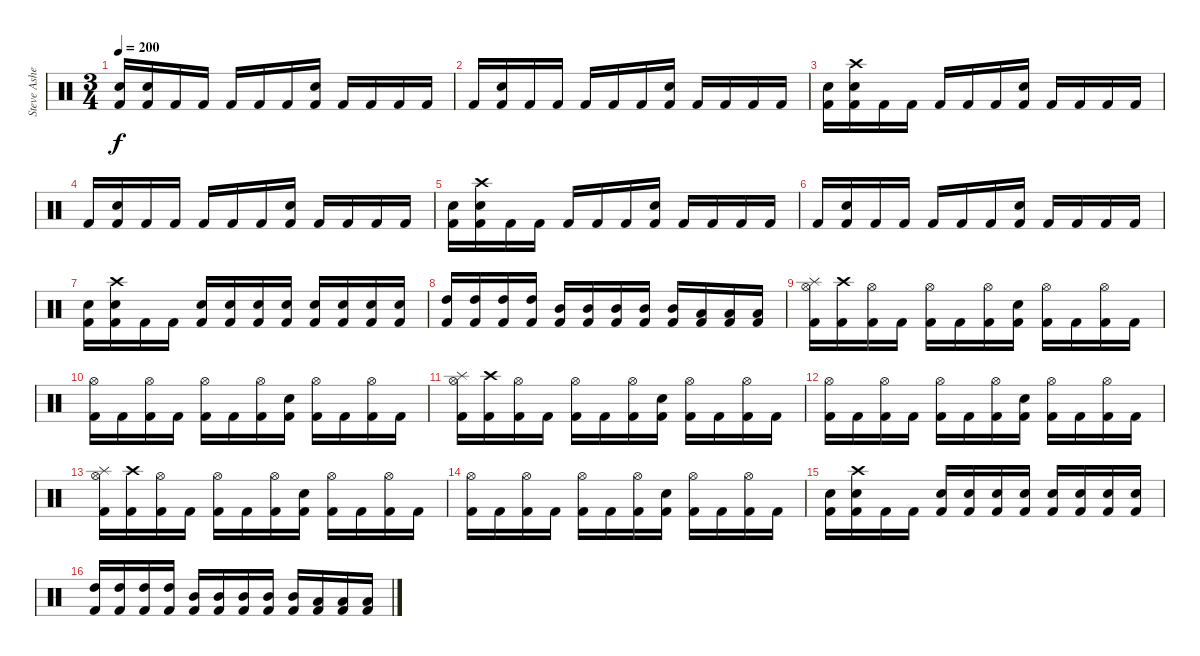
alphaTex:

\track ("Steve Asheim" "Steve Ashe") {instrument percussion}
\staff {score}
\articulation defaults
\ts (3 4)
\tempo 200
\clef neutral
\ks c
("Electric Snare (hit)" "Kick (hit) 2").16{dy f} ("Electric Snare (hit)" "Kick (hit) 2").16 "Kick (hit) 2".16 "Kick (hit) 2".16 "Kick (hit) 2".16 "Kick (hit) 2".16 "Kick (hit) 2".16 ("Electric Snare (hit)" "Kick (hit) 2").16 "Kick (hit) 2".16 "Kick (hit) 2".16 "Kick (hit) 2".16 "Kick (hit) 2".16 |
"Kick (hit) 2".16 ("Electric Snare (hit)" "Kick (hit) 2").16 "Kick (hit) 2".16 "Kick (hit) 2".16 "Kick (hit) 2".16 "Kick (hit) 2".16 "Kick (hit) 2".16 ("Electric Snare (hit)" "Kick (hit) 2").16 "Kick (hit) 2".16 "Kick (hit) 2".16 "Kick (hit) 2".16 "Kick (hit) 2".16 |
("Electric Snare (hit)" "Kick (hit) 2").16 ("Crash high (hit)" "Electric Snare (hit)" "Kick (hit) 2").16 "Kick (hit) 2".16 "Kick (hit) 2".16 "Kick (hit) 2".16 "Kick (hit) 2".16 "Kick (hit) 2".16 ("Electric Snare (hit)" "Kick (hit) 2").16 "Kick (hit) 2".16 "Kick (hit) 2".16 "Kick (hit) 2".16 "Kick (hit) 2".16 |
"Kick (hit) 2".16 ("Electric Snare (hit)" "Kick (hit) 2").16 "Kick (hit) 2".16 "Kick (hit) 2".16 "Kick (hit) 2".16 "Kick (hit) 2".16 "Kick (hit) 2".16 ("Electric Snare (hit)" "Kick (hit) 2").16 "Kick (hit) 2".16 "Kick (hit) 2".16 "Kick (hit) 2".16 "Kick (hit) 2".16 |
("Electric Snare (hit)" "Kick (hit) 2").16 ("Crash high (hit)" "Electric Snare (hit)" "Kick (hit) 2").16 "Kick (hit) 2".16 "Kick (hit) 2".16 "Kick (hit) 2".16 "Kick (hit) 2".16 "Kick (hit) 2".16 ("Electric Snare (hit)" "Kick (hit) 2").16 "Kick (hit) 2".16 "Kick (hit) 2".16 "Kick (hit) 2".16 "Kick (hit) 2".16 |
"Kick (hit) 2".16 ("Electric Snare (hit)" "Kick (hit) 2").16 "Kick (hit) 2".16 "Kick (hit) 2".16 "Kick (hit) 2".16 "Kick (hit) 2".16 "Kick (hit) 2".16 ("Electric Snare (hit)" "Kick (hit) 2").16 "Kick (hit) 2".16 "Kick (hit) 2".16 "Kick (hit) 2".16 "Kick (hit) 2".16 |
("Electric Snare (hit)" "Kick (hit) 2").16 ("Crash high (hit)" "Electric Snare (hit)" "Kick (hit) 2").16 "Kick (hit) 2".16 "Kick (hit) 2".16 ("Electric Snare (hit)" "Kick (hit) 2").16 ("Snare (hit) 2" "Kick (hit) 2").16 ("Snare (hit) 2" "Kick (hit) 2").16 ("Snare (hit) 2" "Kick (hit) 2").16 ("Snare (hit) 2" "Kick (hit) 2").16 ("Snare (hit) 2" "Kick (hit) 2").16 ("Snare (hit) 2" "Kick (hit) 2").16 ("Snare (hit) 2" "Kick (hit) 2").16 |
("High Tom (hit)" "Kick (hit) 2").16 ("High Tom (hit)" "Kick (hit) 2").16 ("High Tom (hit)" "Kick (hit) 2").16 ("High Tom (hit)" "Kick (hit) 2").16 ("Mid Tom (hit)" "Kick (hit) 2").16 ("Mid Tom (hit)" "Kick (hit) 2").16 ("Mid Tom (hit)" "Kick (hit) 2").16 ("Mid Tom (hit)" "Kick (hit) 2").16 ("Mid Tom (hit)" "Kick (hit) 2").16 ("Low Tom (hit)" "Kick (hit) 2").16 ("Low Tom (hit)" "Kick (hit) 2").16 ("Low Tom (hit)" "Kick (hit) 2").16 |
("Splash (hit)" "Hi-Hat (open)" "Kick (hit) 2").16 ("Crash high (hit)" "Kick (hit) 2").16 ("Hi-Hat (open)" "Kick (hit) 2").16 "Kick (hit) 2".16 ("Hi-Hat (open)" "Kick (hit) 2").16 "Kick (hit) 2".16 ("Hi-Hat (open)" "Kick (hit) 2").16 ("Electric Snare (hit)" "Kick (hit) 2").16 ("Hi-Hat (open)" "Kick (hit) 2").16 "Kick (hit) 2".16 ("Hi-Hat (open)" "Kick (hit) 2").16 "Kick (hit) 2".16 |
("Hi-Hat (open)" "Kick (hit) 2").16 "Kick (hit) 2".16 ("Hi-Hat (open)" "Kick (hit) 2").16 "Kick (hit) 2".16 ("Hi-Hat (open)" "Kick (hit) 2").16 "Kick (hit) 2".16 ("Hi-Hat (open)" "Kick (hit) 2").16 ("Electric Snare (hit)" "Kick (hit) 2").16 ("Hi-Hat (open)" "Kick (hit) 2").16 "Kick (hit) 2".16 ("Hi-Hat (open)" "Kick (hit) 2").16 "Kick (hit) 2".16 |
("Splash (hit)" "Hi-Hat (open)" "Kick (hit) 2").16 ("Crash high (hit)" "Kick (hit) 2").16 ("Hi-Hat (open)" "Kick (hit) 2").16 "Kick (hit) 2".16 ("Hi-Hat (open)" "Kick (hit) 2").16 "Kick (hit) 2".16 ("Hi-Hat (open)" "Kick (hit) 2").16 ("Electric Snare (hit)" "Kick (hit) 2").16 ("Hi-Hat (open)" "Kick (hit) 2").16 "Kick (hit) 2".16 ("Hi-Hat (open)" "Kick (hit) 2").16 "Kick (hit) 2".16 |
("Hi-Hat (open)" "Kick (hit) 2").16 "Kick (hit) 2".16 ("Hi-Hat (open)" "Kick (hit) 2").16 "Kick (hit) 2".16 ("Hi-Hat (open)" "Kick (hit) 2").16 "Kick (hit) 2".16 ("Hi-Hat (open)" "Kick (hit) 2").16 ("Electric Snare (hit)" "Kick (hit) 2").16 ("Hi-Hat (open)" "Kick (hit) 2").16 "Kick (hit) 2".16 ("Hi-Hat (open)" "Kick (hit) 2").16 "Kick (hit) 2".16 |
("Splash (hit)" "Hi-Hat (open)" "Kick (hit) 2").16 ("Crash high (hit)" "Kick (hit) 2").16 ("Hi-Hat (open)" "Kick (hit) 2").16 "Kick (hit) 2".16 ("Hi-Hat (open)" "Kick (hit) 2").16 "Kick (hit) 2".16 ("Hi-Hat (open)" "Kick (hit) 2").16 ("Electric Snare (hit)" "Kick (hit) 2").16 ("Hi-Hat (open)" "Kick (hit) 2").16 "Kick (hit) 2".16 ("Hi-Hat (open)" "Kick (hit) 2").16 "Kick (hit) 2".16 |
("Hi-Hat (open)" "Kick (hit) 2").16 "Kick (hit) 2".16 ("Hi-Hat (open)" "Kick (hit) 2").16 "Kick (hit) 2".16 ("Hi-Hat (open)" "Kick (hit) 2").16 "Kick (hit) 2".16 ("Hi-Hat (open)" "Kick (hit) 2").16 ("Electric Snare (hit)" "Kick (hit) 2").16 ("Hi-Hat (open)" "Kick (hit) 2").16 "Kick (hit) 2".16 ("Hi-Hat (open)" "Kick (hit) 2").16 "Kick (hit) 2".16 |
("Electric Snare (hit)" "Kick (hit) 2").16 ("Crash high (hit)" "Electric Snare (hit)" "Kick (hit) 2").16 "Kick (hit) 2".16 "Kick (hit) 2".16 ("Electric Snare (hit)" "Kick (hit) 2").16 ("Snare (hit) 2" "Kick (hit) 2").16 ("Snare (hit) 2" "Kick (hit) 2").16 ("Snare (hit) 2" "Kick (hit) 2").16 ("Snare (hit) 2" "Kick (hit) 2").16 ("Snare (hit) 2" "Kick (hit) 2").16 ("Snare (hit) 2" "Kick (hit) 2").16 ("Snare (hit) 2" "Kick (hit) 2").16 |
("High Tom (hit)" "Kick (hit) 2").16 ("High Tom (hit)" "Kick (hit) 2").16 ("High Tom (hit)" "Kick (hit) 2").16 ("High Tom (hit)" "Kick (hit) 2").16 ("Mid Tom (hit)" "Kick (hit) 2").16 ("Mid Tom (hit)" "Kick (hit) 2").16 ("Mid Tom (hit)" "Kick (hit) 2").16 ("Mid Tom (hit)" "Kick (hit) 2").16 ("Mid Tom (hit)" "Kick (hit) 2").16 ("Low Tom (hit)" "Kick (hit) 2").16 ("Low Tom (hit)" "Kick (hit) 2").16 ("Low Tom (hit)" "Kick (hit) 2").16
